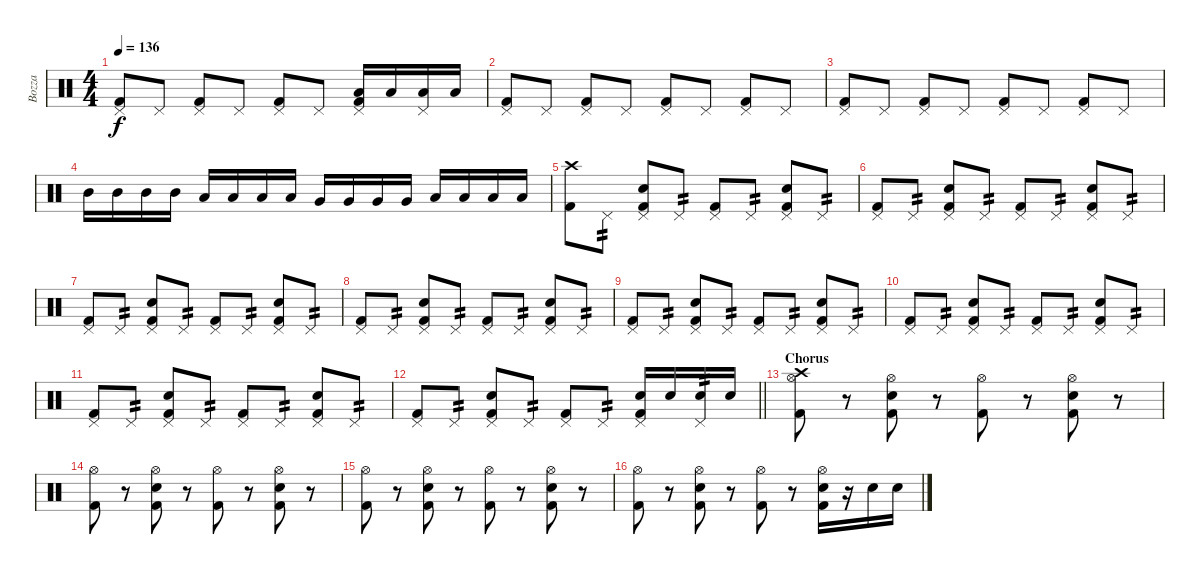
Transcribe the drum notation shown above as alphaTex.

\track ("Bozza" "Bozza") {instrument percussion}
\staff {score}
\articulation defaults
\ts (4 4)
\tempo 136
\clef neutral
\ks c
("Pedal Hi-Hat (hit)" "Kick (hit) 2").8{dy f} "Pedal Hi-Hat (hit)".8 ("Pedal Hi-Hat (hit)" "Kick (hit) 2").8 "Pedal Hi-Hat (hit)".8 ("Pedal Hi-Hat (hit)" "Kick (hit) 2").8 "Pedal Hi-Hat (hit)".8 ("Pedal Hi-Hat (hit)" "Low Floor Tom (hit)" "Kick (hit) 2").16 "Low Floor Tom (hit)".16 ("Pedal Hi-Hat (hit)" "Low Floor Tom (hit)").16 "Low Floor Tom (hit)".16 |
("Pedal Hi-Hat (hit)" "Kick (hit) 2").8 "Pedal Hi-Hat (hit)".8 ("Pedal Hi-Hat (hit)" "Kick (hit) 2").8 "Pedal Hi-Hat (hit)".8 ("Pedal Hi-Hat (hit)" "Kick (hit) 2").8 "Pedal Hi-Hat (hit)".8 ("Pedal Hi-Hat (hit)" "Kick (hit) 2").8 "Pedal Hi-Hat (hit)".8 |
("Pedal Hi-Hat (hit)" "Kick (hit) 2").8 "Pedal Hi-Hat (hit)".8 ("Pedal Hi-Hat (hit)" "Kick (hit) 2").8 "Pedal Hi-Hat (hit)".8 ("Pedal Hi-Hat (hit)" "Kick (hit) 2").8 "Pedal Hi-Hat (hit)".8 ("Pedal Hi-Hat (hit)" "Kick (hit) 2").8 "Pedal Hi-Hat (hit)".8 |
"Mid Tom (hit)".16 "Mid Tom (hit)".16 "Mid Tom (hit)".16 "Mid Tom (hit)".16 "Low Tom (hit)".16 "Low Tom (hit)".16 "Low Tom (hit)".16 "Low Tom (hit)".16 "Very Low Tom (hit)".16 "Very Low Tom (hit)".16 "Very Low Tom (hit)".16 "Very Low Tom (hit)".16 "Low Floor Tom (hit)".16 "Low Floor Tom (hit)".16 "Low Floor Tom (hit)".16 "Low Floor Tom (hit)".16 |
("Crash high (hit)" "Kick (hit) 2").8 "Pedal Hi-Hat (hit)".8{tp 2} ("Pedal Hi-Hat (hit)" "Snare (hit) 2" "Kick (hit) 2").8 "Pedal Hi-Hat (hit)".8{tp 2} ("Pedal Hi-Hat (hit)" "Kick (hit) 2").8 "Pedal Hi-Hat (hit)".8{tp 2} ("Pedal Hi-Hat (hit)" "Snare (hit) 2" "Kick (hit) 2").8 "Pedal Hi-Hat (hit)".8{tp 2} |
("Pedal Hi-Hat (hit)" "Kick (hit) 2").8 "Pedal Hi-Hat (hit)".8{tp 2} ("Pedal Hi-Hat (hit)" "Snare (hit) 2" "Kick (hit) 2").8 "Pedal Hi-Hat (hit)".8{tp 2} ("Pedal Hi-Hat (hit)" "Kick (hit) 2").8 "Pedal Hi-Hat (hit)".8{tp 2} ("Pedal Hi-Hat (hit)" "Snare (hit) 2" "Kick (hit) 2").8 "Pedal Hi-Hat (hit)".8{tp 2} |
("Pedal Hi-Hat (hit)" "Kick (hit) 2").8 "Pedal Hi-Hat (hit)".8{tp 2} ("Pedal Hi-Hat (hit)" "Snare (hit) 2" "Kick (hit) 2").8 "Pedal Hi-Hat (hit)".8{tp 2} ("Pedal Hi-Hat (hit)" "Kick (hit) 2").8 "Pedal Hi-Hat (hit)".8{tp 2} ("Pedal Hi-Hat (hit)" "Snare (hit) 2" "Kick (hit) 2").8 "Pedal Hi-Hat (hit)".8{tp 2} |
("Pedal Hi-Hat (hit)" "Kick (hit) 2").8 "Pedal Hi-Hat (hit)".8{tp 2} ("Pedal Hi-Hat (hit)" "Snare (hit) 2" "Kick (hit) 2").8 "Pedal Hi-Hat (hit)".8{tp 2} ("Pedal Hi-Hat (hit)" "Kick (hit) 2").8 "Pedal Hi-Hat (hit)".8{tp 2} ("Pedal Hi-Hat (hit)" "Snare (hit) 2" "Kick (hit) 2").8 "Pedal Hi-Hat (hit)".8{tp 2} |
("Pedal Hi-Hat (hit)" "Kick (hit) 2").8 "Pedal Hi-Hat (hit)".8{tp 2} ("Pedal Hi-Hat (hit)" "Snare (hit) 2" "Kick (hit) 2").8 "Pedal Hi-Hat (hit)".8{tp 2} ("Pedal Hi-Hat (hit)" "Kick (hit) 2").8 "Pedal Hi-Hat (hit)".8{tp 2} ("Pedal Hi-Hat (hit)" "Snare (hit) 2" "Kick (hit) 2").8 "Pedal Hi-Hat (hit)".8{tp 2} |
("Pedal Hi-Hat (hit)" "Kick (hit) 2").8 "Pedal Hi-Hat (hit)".8{tp 2} ("Pedal Hi-Hat (hit)" "Snare (hit) 2" "Kick (hit) 2").8 "Pedal Hi-Hat (hit)".8{tp 2} ("Pedal Hi-Hat (hit)" "Kick (hit) 2").8 "Pedal Hi-Hat (hit)".8{tp 2} ("Pedal Hi-Hat (hit)" "Snare (hit) 2" "Kick (hit) 2").8 "Pedal Hi-Hat (hit)".8{tp 2} |
("Pedal Hi-Hat (hit)" "Kick (hit) 2").8 "Pedal Hi-Hat (hit)".8{tp 2} ("Pedal Hi-Hat (hit)" "Snare (hit) 2" "Kick (hit) 2").8 "Pedal Hi-Hat (hit)".8{tp 2} ("Pedal Hi-Hat (hit)" "Kick (hit) 2").8 "Pedal Hi-Hat (hit)".8{tp 2} ("Pedal Hi-Hat (hit)" "Snare (hit) 2" "Kick (hit) 2").8 "Pedal Hi-Hat (hit)".8{tp 2} |
\barLineRight lightlight
("Pedal Hi-Hat (hit)" "Kick (hit) 2").8 "Pedal Hi-Hat (hit)".8{tp 2} ("Pedal Hi-Hat (hit)" "Snare (hit) 2" "Kick (hit) 2").8 "Pedal Hi-Hat (hit)".8{tp 2} ("Pedal Hi-Hat (hit)" "Kick (hit) 2").8 "Pedal Hi-Hat (hit)".8{tp 2} ("Pedal Hi-Hat (hit)" "Snare (hit) 2" "Kick (hit) 2").16 "Snare (hit) 2".16 ("Pedal Hi-Hat (hit)" "Snare (hit) 2").16{tp 2} "Snare (hit) 2".16 |
\section ("" "Chorus")
("Crash high (hit)" "Hi-Hat (open)" "Kick (hit) 2").8 r.8 ("Hi-Hat (open)" "Snare (hit) 2" "Kick (hit) 2").8 r.8 ("Hi-Hat (open)" "Kick (hit) 2").8 r.8 ("Hi-Hat (open)" "Snare (hit) 2" "Kick (hit) 2").8 r.8 |
("Hi-Hat (open)" "Kick (hit) 2").8 r.8 ("Hi-Hat (open)" "Snare (hit) 2" "Kick (hit) 2").8 r.8 ("Hi-Hat (open)" "Kick (hit) 2").8 r.8 ("Hi-Hat (open)" "Snare (hit) 2" "Kick (hit) 2").8 r.8 |
("Hi-Hat (open)" "Kick (hit) 2").8 r.8 ("Hi-Hat (open)" "Snare (hit) 2" "Kick (hit) 2").8 r.8 ("Hi-Hat (open)" "Kick (hit) 2").8 r.8 ("Hi-Hat (open)" "Snare (hit) 2" "Kick (hit) 2").8 r.8 |
("Hi-Hat (open)" "Kick (hit) 2").8 r.8 ("Hi-Hat (open)" "Snare (hit) 2" "Kick (hit) 2").8 r.8 ("Hi-Hat (open)" "Kick (hit) 2").8 r.8 ("Hi-Hat (open)" "Snare (hit) 2" "Kick (hit) 2").16 r.16 "Snare (hit) 2".16 "Snare (hit) 2".16
